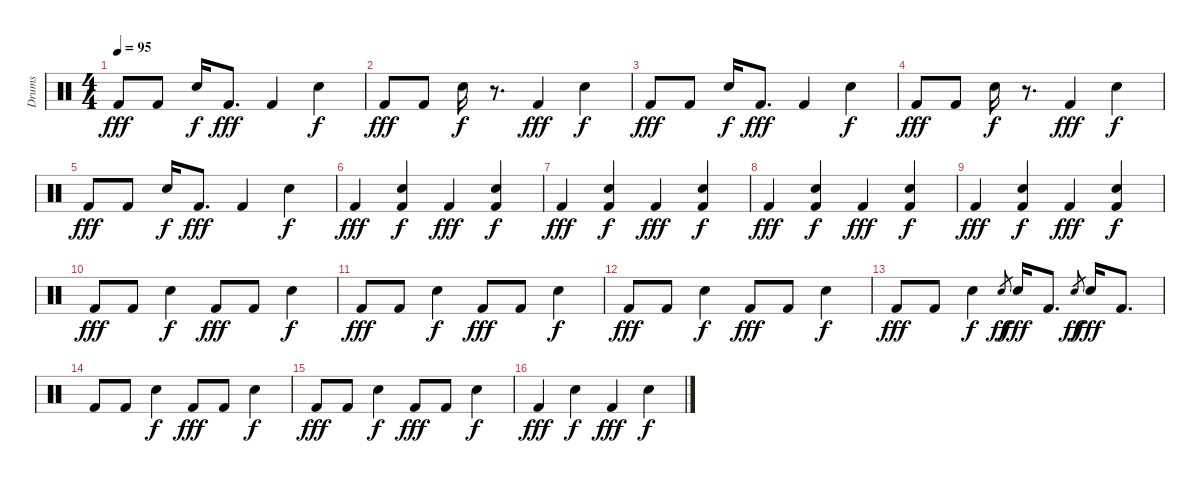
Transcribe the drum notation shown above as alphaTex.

\bracketExtendMode groupsimilarinstruments
\otherSystemsTrackNameOrientation horizontal
\track ("Drumkit" "Drums") {instrument percussion}
\staff {score}
\articulation defaults
\ts (4 4)
\tempo 95
\clef neutral
\ks c "Kick (hit) 2".8{dy fff} "Kick (hit) 2".8 "Snare (hit) 2".16{dy f} "Kick (hit) 2".8{d dy fff} "Kick (hit) 2".4 "Snare (hit) 2".4{dy f}
|
"Kick (hit) 2".8{dy fff} "Kick (hit) 2".8 "Snare (hit) 2".16{dy f} r.8{d} "Kick (hit) 2".4{dy fff} "Snare (hit) 2".4{dy f} |
"Kick (hit) 2".8{dy fff} "Kick (hit) 2".8 "Snare (hit) 2".16{dy f} "Kick (hit) 2".8{d dy fff} "Kick (hit) 2".4 "Snare (hit) 2".4{dy f} |
"Kick (hit) 2".8{dy fff} "Kick (hit) 2".8 "Snare (hit) 2".16{dy f} r.8{d} "Kick (hit) 2".4{dy fff} "Snare (hit) 2".4{dy f} |
"Kick (hit) 2".8{dy fff} "Kick (hit) 2".8 "Snare (hit) 2".16{dy f} "Kick (hit) 2".8{d dy fff} "Kick (hit) 2".4 "Snare (hit) 2".4{dy f} |
"Kick (hit) 2".4{dy fff} ("Snare (hit) 2" "Kick (hit) 2").4{dy f} "Kick (hit) 2".4{dy fff} ("Snare (hit) 2" "Kick (hit) 2").4{dy f} |
"Kick (hit) 2".4{dy fff} ("Snare (hit) 2" "Kick (hit) 2").4{dy f} "Kick (hit) 2".4{dy fff} ("Snare (hit) 2" "Kick (hit) 2").4{dy f} |
"Kick (hit) 2".4{dy fff} ("Snare (hit) 2" "Kick (hit) 2").4{dy f} "Kick (hit) 2".4{dy fff} ("Snare (hit) 2" "Kick (hit) 2").4{dy f} |
"Kick (hit) 2".4{dy fff} ("Snare (hit) 2" "Kick (hit) 2").4{dy f} "Kick (hit) 2".4{dy fff} ("Snare (hit) 2" "Kick (hit) 2").4{dy f} |
"Kick (hit) 2".8{dy fff} "Kick (hit) 2".8 "Snare (hit) 2".4{dy f} "Kick (hit) 2".8{dy fff} "Kick (hit) 2".8 "Snare (hit) 2".4{dy f} |
"Kick (hit) 2".8{dy fff} "Kick (hit) 2".8 "Snare (hit) 2".4{dy f} "Kick (hit) 2".8{dy fff} "Kick (hit) 2".8 "Snare (hit) 2".4{dy f} |
"Kick (hit) 2".8{dy fff} "Kick (hit) 2".8 "Snare (hit) 2".4{dy f} "Kick (hit) 2".8{dy fff} "Kick (hit) 2".8 "Snare (hit) 2".4{dy f} |
"Kick (hit) 2".8{dy fff} "Kick (hit) 2".8 "Snare (hit) 2".4{dy f} "Snare (hit) 2".8{gr dy ff} "Snare (hit) 2".16{dy fff} "Kick (hit) 2".8{d} "Snare (hit) 2".8{gr dy ff} "Snare (hit) 2".16{dy fff} "Kick (hit) 2".8{d} |
"Kick (hit) 2".8 "Kick (hit) 2".8 "Snare (hit) 2".4{dy f} "Kick (hit) 2".8{dy fff} "Kick (hit) 2".8 "Snare (hit) 2".4{dy f} |
"Kick (hit) 2".8{dy fff} "Kick (hit) 2".8 "Snare (hit) 2".4{dy f} "Kick (hit) 2".8{dy fff} "Kick (hit) 2".8 "Snare (hit) 2".4{dy f} |
"Kick (hit) 2".4{dy fff} "Snare (hit) 2".4{dy f} "Kick (hit) 2".4{dy fff} "Snare (hit) 2".4{dy f}
